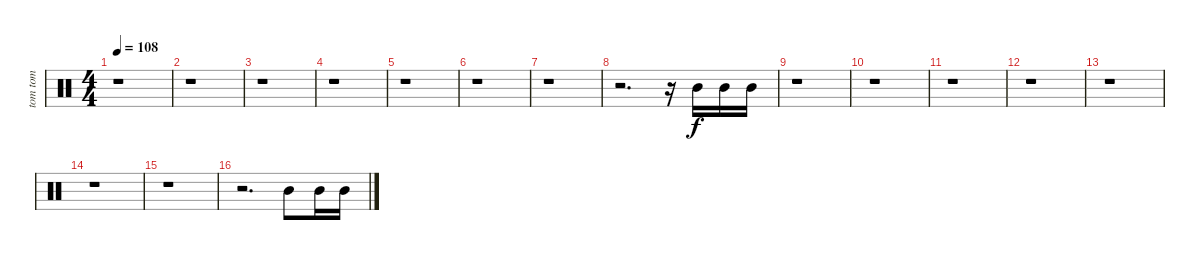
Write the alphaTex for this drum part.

\track ("tom tom             " "tom tom   ") {instrument percussion}
\staff {score}
\articulation defaults
\ts (4 4)
\tempo 108
\clef neutral
\ks c
r.1{dy f} |
r.1 |
r.1 |
r.1 |
r.1 |
r.1 |
r.1 |
r.2{d} r.16 "Mid Tom (hit)".16 "Mid Tom (hit)".16 "Mid Tom (hit)".16 |
r.1 |
r.1 |
r.1 |
r.1 |
r.1 |
r.1 |
r.1 |
r.2{d} "Mid Tom (hit)".8 "Mid Tom (hit)".16 "Mid Tom (hit)".16
